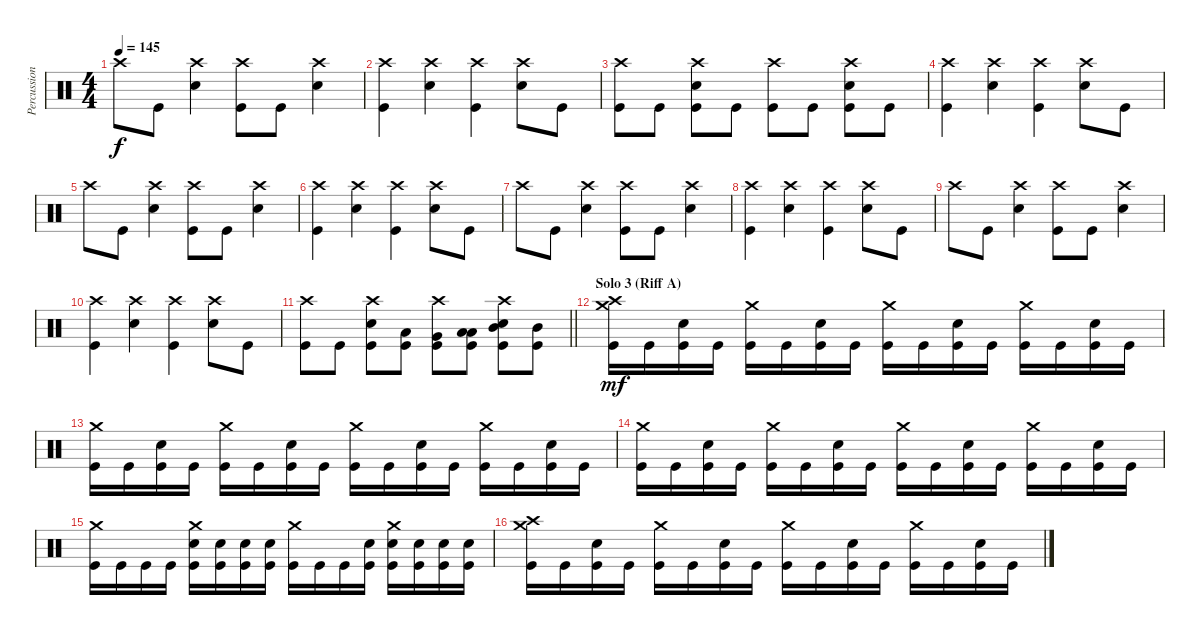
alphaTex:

\track ("Percussion" "Percussion") {instrument percussion}
\staff {score}
\articulation defaults
\ts (4 4)
\tempo 145
\clef neutral
\ks c "Crash high (hit)".8{dy f} "Kick (hit)".8
("Crash high (hit)" "Snare (hit) 2").4 ("Crash high (hit)" "Kick (hit)").8 "Kick (hit)".8 ("Crash high (hit)" "Snare (hit) 2").4 |
("Crash high (hit)" "Kick (hit)").4 ("Crash high (hit)" "Snare (hit) 2").4 ("Crash high (hit)" "Kick (hit)").4 ("Crash high (hit)" "Snare (hit) 2").8 "Kick (hit)".8 |
("Crash high (hit)" "Kick (hit)").8 "Kick (hit)".8 ("Crash high (hit)" "Snare (hit) 2" "Kick (hit)").8 "Kick (hit)".8 ("Crash high (hit)" "Kick (hit)").8 "Kick (hit)".8 ("Crash high (hit)" "Snare (hit) 2" "Kick (hit)").8 "Kick (hit)".8 |
("Crash high (hit)" "Kick (hit)").4 ("Crash high (hit)" "Snare (hit) 2").4 ("Crash high (hit)" "Kick (hit)").4 ("Crash high (hit)" "Snare (hit) 2").8 "Kick (hit)".8 |
"Crash high (hit)".8 "Kick (hit)".8 ("Crash high (hit)" "Snare (hit) 2").4 ("Crash high (hit)" "Kick (hit)").8 "Kick (hit)".8 ("Crash high (hit)" "Snare (hit) 2").4 |
("Crash high (hit)" "Kick (hit)").4 ("Crash high (hit)" "Snare (hit) 2").4 ("Crash high (hit)" "Kick (hit)").4 ("Crash high (hit)" "Snare (hit) 2").8 "Kick (hit)".8 |
"Crash high (hit)".8 "Kick (hit)".8 ("Crash high (hit)" "Snare (hit) 2").4 ("Crash high (hit)" "Kick (hit)").8 "Kick (hit)".8 ("Crash high (hit)" "Snare (hit) 2").4 |
("Crash high (hit)" "Kick (hit)").4 ("Crash high (hit)" "Snare (hit) 2").4 ("Crash high (hit)" "Kick (hit)").4 ("Crash high (hit)" "Snare (hit) 2").8 "Kick (hit)".8 |
"Crash high (hit)".8 "Kick (hit)".8 ("Crash high (hit)" "Snare (hit) 2").4 ("Crash high (hit)" "Kick (hit)").8 "Kick (hit)".8 ("Crash high (hit)" "Snare (hit) 2").4 |
("Crash high (hit)" "Kick (hit)").4 ("Crash high (hit)" "Snare (hit) 2").4 ("Crash high (hit)" "Kick (hit)").4 ("Crash high (hit)" "Snare (hit) 2").8 "Kick (hit)".8 |
\barLineRight lightlight
("Crash high (hit)" "Kick (hit)").8 "Kick (hit)".8 ("Crash high (hit)" "Snare (hit) 2" "Kick (hit)").8 ("Low Floor Tom (hit)" "Kick (hit)").8 ("Crash high (hit)" "Very Low Tom (hit)" "Kick (hit)").8 ("Low Tom (hit)" "Low Tom (hit)" "Kick (hit)").8 ("Crash high (hit)" "Mid Tom (hit)" "Snare (hit) 2" "Kick (hit)").8 ("Mid Tom (hit)" "Kick (hit)").8 |
\section ("" "Solo 3 (Riff A)")
("Crash medium (hit)" "Crash high (hit)" "Kick (hit)").16{dy mf} "Kick (hit)".16 ("Snare (hit) 2" "Kick (hit)").16 "Kick (hit)".16 ("Crash medium (hit)" "Kick (hit)").16 "Kick (hit)".16 ("Snare (hit) 2" "Kick (hit)").16 "Kick (hit)".16 ("Crash medium (hit)" "Kick (hit)").16 "Kick (hit)".16 ("Snare (hit) 2" "Kick (hit)").16 "Kick (hit)".16 ("Crash medium (hit)" "Kick (hit)").16 "Kick (hit)".16 ("Snare (hit) 2" "Kick (hit)").16 "Kick (hit)".16 |
("Crash medium (hit)" "Kick (hit)").16 "Kick (hit)".16 ("Snare (hit) 2" "Kick (hit)").16 "Kick (hit)".16 ("Crash medium (hit)" "Kick (hit)").16 "Kick (hit)".16 ("Snare (hit) 2" "Kick (hit)").16 "Kick (hit)".16 ("Crash medium (hit)" "Kick (hit)").16 "Kick (hit)".16 ("Snare (hit) 2" "Kick (hit)").16 "Kick (hit)".16 ("Crash medium (hit)" "Kick (hit)").16 "Kick (hit)".16 ("Snare (hit) 2" "Kick (hit)").16 "Kick (hit)".16 |
("Crash medium (hit)" "Kick (hit)").16 "Kick (hit)".16 ("Snare (hit) 2" "Kick (hit)").16 "Kick (hit)".16 ("Crash medium (hit)" "Kick (hit)").16 "Kick (hit)".16 ("Snare (hit) 2" "Kick (hit)").16 "Kick (hit)".16 ("Crash medium (hit)" "Kick (hit)").16 "Kick (hit)".16 ("Snare (hit) 2" "Kick (hit)").16 "Kick (hit)".16 ("Crash medium (hit)" "Kick (hit)").16 "Kick (hit)".16 ("Snare (hit) 2" "Kick (hit)").16 "Kick (hit)".16 |
("Crash medium (hit)" "Kick (hit)").16 "Kick (hit)".16 "Kick (hit)".16 "Kick (hit)".16 ("Crash medium (hit)" "Snare (hit) 2" "Kick (hit)").16 ("Snare (hit) 2" "Kick (hit)").16 ("Snare (hit) 2" "Kick (hit)").16 ("Snare (hit) 2" "Kick (hit)").16 ("Crash medium (hit)" "Kick (hit)").16 "Kick (hit)".16 "Kick (hit)".16 ("Snare (hit) 2" "Kick (hit)").16 ("Crash medium (hit)" "Snare (hit) 2" "Kick (hit)").16 ("Snare (hit) 2" "Kick (hit)").16 ("Snare (hit) 2" "Kick (hit)").16 ("Snare (hit) 2" "Kick (hit)").16 |
("Crash medium (hit)" "Crash high (hit)" "Kick (hit)").16 "Kick (hit)".16 ("Snare (hit) 2" "Kick (hit)").16 "Kick (hit)".16 ("Crash medium (hit)" "Kick (hit)").16 "Kick (hit)".16 ("Snare (hit) 2" "Kick (hit)").16 "Kick (hit)".16 ("Crash medium (hit)" "Kick (hit)").16 "Kick (hit)".16 ("Snare (hit) 2" "Kick (hit)").16 "Kick (hit)".16 ("Crash medium (hit)" "Kick (hit)").16 "Kick (hit)".16 ("Snare (hit) 2" "Kick (hit)").16 "Kick (hit)".16
